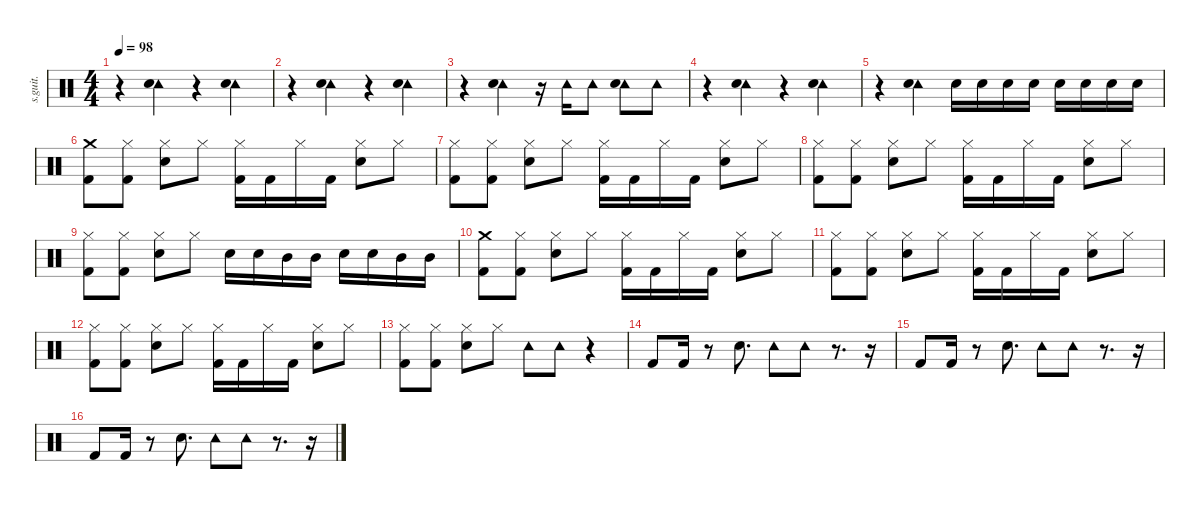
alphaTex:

\defaultSystemsLayout 4
\hideDynamics
\bracketExtendMode nobrackets
\track ("" "s.guit.") {instrument percussion}
\staff {score}
\articulation defaults
\ts (4 4)
\tempo 98
\clef neutral
\ks c
r.4{dy ff} ("Tambourine (hit)" "Hand Clap (hit)").4 r.4 ("Tambourine (hit)" "Hand Clap (hit)").4 |
r.4 ("Tambourine (hit)" "Hand Clap (hit)").4 r.4 ("Tambourine (hit)" "Hand Clap (hit)").4 |
r.4 ("Tambourine (hit)" "Hand Clap (hit)").4 r.16 "Tambourine (hit)".16 "Tambourine (hit)".8 ("Tambourine (hit)" "Hand Clap (hit)").8 "Tambourine (hit)".8 |
r.4 ("Tambourine (hit)" "Hand Clap (hit)").4 r.4 ("Tambourine (hit)" "Hand Clap (hit)").4 |
r.4 ("Tambourine (hit)" "Hand Clap (hit)").4 "Hand Clap (hit)".16 "Snare (hit) 2".16 "Snare (hit) 2".16 "Snare (hit) 2".16 "Snare (hit) 2".16 "Snare (hit) 2".16 "Snare (hit) 2".16 "Snare (hit) 2".16 |
("Crash medium (hit)" "Kick (hit) 2").8 ("Hi-Hat (closed)" "Kick (hit) 2").8 ("Hi-Hat (closed)" "Snare (hit) 2").8 "Hi-Hat (closed)".8 ("Hi-Hat (closed)" "Kick (hit) 2").16 "Kick (hit) 2".16 "Hi-Hat (closed)".16 "Kick (hit) 2".16 ("Hi-Hat (closed)" "Snare (hit) 2").8 "Hi-Hat (closed)".8 |
("Hi-Hat (closed)" "Kick (hit) 2").8 ("Hi-Hat (closed)" "Kick (hit) 2").8 ("Hi-Hat (closed)" "Snare (hit) 2").8 "Hi-Hat (closed)".8 ("Hi-Hat (closed)" "Kick (hit) 2").16 "Kick (hit) 2".16 "Hi-Hat (closed)".16 "Kick (hit) 2".16 ("Hi-Hat (closed)" "Snare (hit) 2").8 "Hi-Hat (closed)".8 |
("Hi-Hat (closed)" "Kick (hit) 2").8 ("Hi-Hat (closed)" "Kick (hit) 2").8 ("Hi-Hat (closed)" "Snare (hit) 2").8 "Hi-Hat (closed)".8 ("Hi-Hat (closed)" "Kick (hit) 2").16 "Kick (hit) 2".16 "Hi-Hat (closed)".16 "Kick (hit) 2".16 ("Hi-Hat (closed)" "Snare (hit) 2").8 "Hi-Hat (closed)".8 |
("Hi-Hat (closed)" "Kick (hit) 2").8 ("Hi-Hat (closed)" "Kick (hit) 2").8 ("Hi-Hat (closed)" "Snare (hit) 2").8 "Hi-Hat (closed)".8 "Snare (hit) 2".16 "Snare (hit) 2".16 "Mid Tom (hit)".16 "Mid Tom (hit)".16 "Snare (hit) 2".16 "Snare (hit) 2".16 "Mid Tom (hit)".16 "Mid Tom (hit)".16 |
("Crash medium (hit)" "Kick (hit) 2").8 ("Hi-Hat (closed)" "Kick (hit) 2").8 ("Hi-Hat (closed)" "Snare (hit) 2").8 "Hi-Hat (closed)".8 ("Hi-Hat (closed)" "Kick (hit) 2").16 "Kick (hit) 2".16 "Hi-Hat (closed)".16 "Kick (hit) 2".16 ("Hi-Hat (closed)" "Snare (hit) 2").8 "Hi-Hat (closed)".8 |
("Hi-Hat (closed)" "Kick (hit) 2").8 ("Hi-Hat (closed)" "Kick (hit) 2").8 ("Hi-Hat (closed)" "Snare (hit) 2").8 "Hi-Hat (closed)".8 ("Hi-Hat (closed)" "Kick (hit) 2").16 "Kick (hit) 2".16 "Hi-Hat (closed)".16 "Kick (hit) 2".16 ("Hi-Hat (closed)" "Snare (hit) 2").8 "Hi-Hat (closed)".8 |
("Hi-Hat (closed)" "Kick (hit) 2").8 ("Hi-Hat (closed)" "Kick (hit) 2").8 ("Hi-Hat (closed)" "Snare (hit) 2").8 "Hi-Hat (closed)".8 ("Hi-Hat (closed)" "Kick (hit) 2").16 "Kick (hit) 2".16 "Hi-Hat (closed)".16 "Kick (hit) 2".16 ("Hi-Hat (closed)" "Snare (hit) 2").8 "Hi-Hat (closed)".8 |
("Hi-Hat (closed)" "Kick (hit) 2").8 ("Hi-Hat (closed)" "Kick (hit) 2").8 ("Hi-Hat (closed)" "Snare (hit) 2").8 "Hi-Hat (closed)".8 "Tambourine (hit)".8 "Tambourine (hit)".8 r.4 |
"Kick (hit) 2".8 "Kick (hit) 2".16 r.8 "Snare (hit) 2".8{d} "Tambourine (hit)".8 "Tambourine (hit)".8 r.8{d} r.16 |
"Kick (hit) 2".8 "Kick (hit) 2".16 r.8 "Snare (hit) 2".8{d} "Tambourine (hit)".8 "Tambourine (hit)".8 r.8{d} r.16 |
"Kick (hit) 2".8 "Kick (hit) 2".16 r.8 "Snare (hit) 2".8{d} "Tambourine (hit)".8 "Tambourine (hit)".8 r.8{d} r.16
